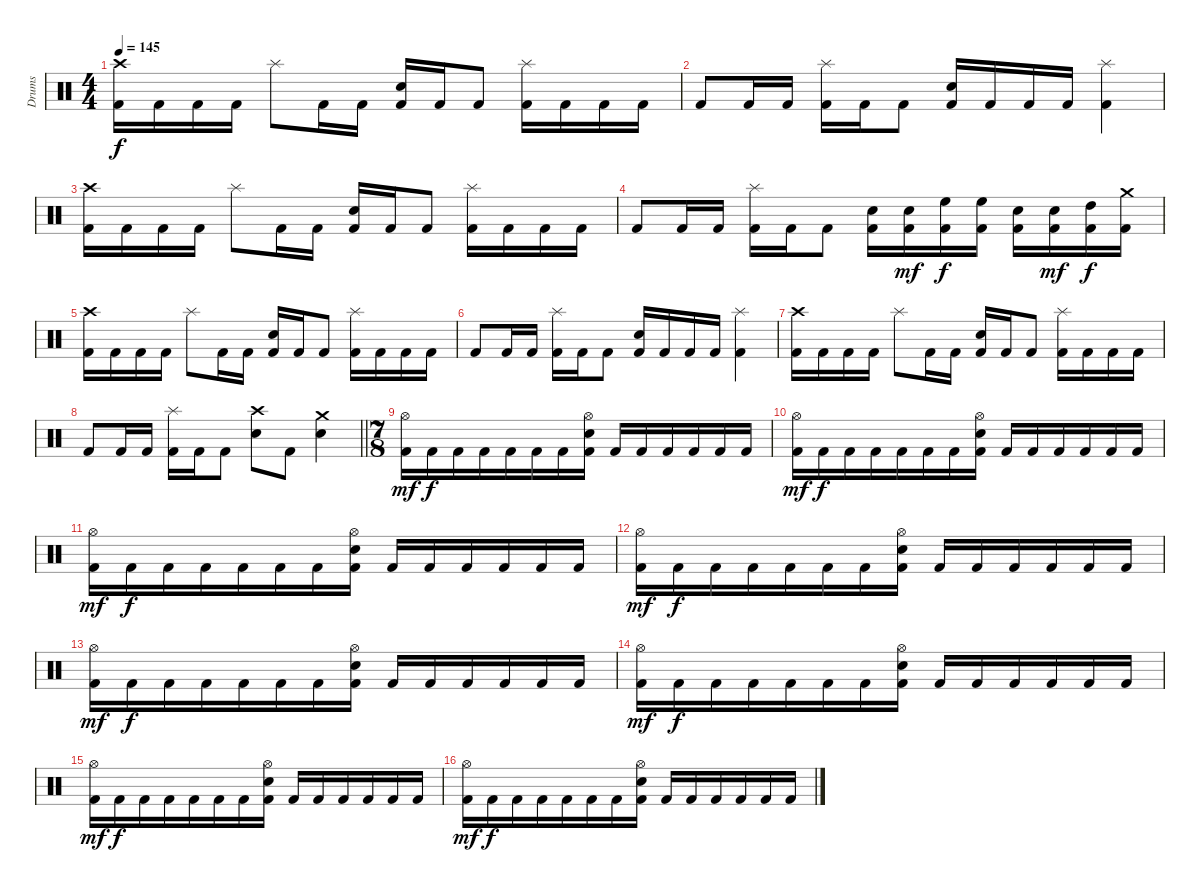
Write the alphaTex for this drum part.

\track ("Drums" "Drums") {instrument percussion}
\staff {score}
\articulation defaults
\ts (4 4)
\tempo 145
\clef neutral
\ks c
("Crash high (hit)" "Kick (hit) 2").16{dy f} "Kick (hit) 2".16 "Kick (hit) 2".16 "Kick (hit) 2".16 "Splash (hit)".8 "Kick (hit) 2".16 "Kick (hit) 2".16 ("Electric Snare (hit)" "Kick (hit) 2").16 "Kick (hit) 2".16 "Kick (hit) 2".8 ("Splash (hit)" "Kick (hit) 2").16 "Kick (hit) 2".16 "Kick (hit) 2".16 "Kick (hit) 2".16 |
"Kick (hit) 2".8 "Kick (hit) 2".16 "Kick (hit) 2".16 ("Splash (hit)" "Kick (hit) 2").16 "Kick (hit) 2".16 "Kick (hit) 2".8 ("Electric Snare (hit)" "Kick (hit) 2").16 "Kick (hit) 2".16 "Kick (hit) 2".16 "Kick (hit) 2".16 ("Splash (hit)" "Kick (hit) 2").4 |
("Crash high (hit)" "Kick (hit) 2").16 "Kick (hit) 2".16 "Kick (hit) 2".16 "Kick (hit) 2".16 "Splash (hit)".8 "Kick (hit) 2".16 "Kick (hit) 2".16 ("Electric Snare (hit)" "Kick (hit) 2").16 "Kick (hit) 2".16 "Kick (hit) 2".8 ("Splash (hit)" "Kick (hit) 2").16 "Kick (hit) 2".16 "Kick (hit) 2".16 "Kick (hit) 2".16 |
"Kick (hit) 2".8 "Kick (hit) 2".16 "Kick (hit) 2".16 ("Splash (hit)" "Kick (hit) 2").16 "Kick (hit) 2".16 "Kick (hit) 2".8 ("Electric Snare (hit)" "Kick (hit) 2").16 ("Electric Snare (hit)" "Kick (hit) 2").16{dy mf} ("High Floor Tom (hit)" "Kick (hit) 2").16{dy f} ("High Floor Tom (hit)" "Kick (hit) 2").16 ("Electric Snare (hit)" "Kick (hit) 2").16 ("Electric Snare (hit)" "Kick (hit) 2").16{dy mf} ("High Tom (hit)" "Kick (hit) 2").16{dy f} ("Crash medium (hit)" "Kick (hit) 2").16 |
("Crash high (hit)" "Kick (hit) 2").16 "Kick (hit) 2".16 "Kick (hit) 2".16 "Kick (hit) 2".16 "Splash (hit)".8 "Kick (hit) 2".16 "Kick (hit) 2".16 ("Electric Snare (hit)" "Kick (hit) 2").16 "Kick (hit) 2".16 "Kick (hit) 2".8 ("Splash (hit)" "Kick (hit) 2").16 "Kick (hit) 2".16 "Kick (hit) 2".16 "Kick (hit) 2".16 |
"Kick (hit) 2".8 "Kick (hit) 2".16 "Kick (hit) 2".16 ("Splash (hit)" "Kick (hit) 2").16 "Kick (hit) 2".16 "Kick (hit) 2".8 ("Electric Snare (hit)" "Kick (hit) 2").16 "Kick (hit) 2".16 "Kick (hit) 2".16 "Kick (hit) 2".16 ("Splash (hit)" "Kick (hit) 2").4 |
("Crash high (hit)" "Kick (hit) 2").16 "Kick (hit) 2".16 "Kick (hit) 2".16 "Kick (hit) 2".16 "Splash (hit)".8 "Kick (hit) 2".16 "Kick (hit) 2".16 ("Electric Snare (hit)" "Kick (hit) 2").16 "Kick (hit) 2".16 "Kick (hit) 2".8 ("Splash (hit)" "Kick (hit) 2").16 "Kick (hit) 2".16 "Kick (hit) 2".16 "Kick (hit) 2".16 |
\barLineRight lightlight "Kick (hit) 2".8 "Kick (hit) 2".16 "Kick (hit) 2".16
("Splash (hit)" "Kick (hit) 2").16 "Kick (hit) 2".16 "Kick (hit) 2".8 ("Crash high (hit)" "Electric Snare (hit)").8 "Kick (hit) 2".8 ("Crash medium (hit)" "Electric Snare (hit)").4 |
\ts (7 8)
("Hi-Hat (open)" "Kick (hit) 2").16{dy mf} "Kick (hit) 2".16{dy f} "Kick (hit) 2".16 "Kick (hit) 2".16 "Kick (hit) 2".16 "Kick (hit) 2".16 "Kick (hit) 2".16 ("Hi-Hat (open)" "Electric Snare (hit)" "Kick (hit) 2").16 "Kick (hit) 2".16 "Kick (hit) 2".16 "Kick (hit) 2".16 "Kick (hit) 2".16 "Kick (hit) 2".16 "Kick (hit) 2".16 |
("Hi-Hat (open)" "Kick (hit) 2").16{dy mf} "Kick (hit) 2".16{dy f} "Kick (hit) 2".16 "Kick (hit) 2".16 "Kick (hit) 2".16 "Kick (hit) 2".16 "Kick (hit) 2".16 ("Hi-Hat (open)" "Electric Snare (hit)" "Kick (hit) 2").16 "Kick (hit) 2".16 "Kick (hit) 2".16 "Kick (hit) 2".16 "Kick (hit) 2".16 "Kick (hit) 2".16 "Kick (hit) 2".16 |
("Hi-Hat (open)" "Kick (hit) 2").16{dy mf} "Kick (hit) 2".16{dy f} "Kick (hit) 2".16 "Kick (hit) 2".16 "Kick (hit) 2".16 "Kick (hit) 2".16 "Kick (hit) 2".16 ("Hi-Hat (open)" "Electric Snare (hit)" "Kick (hit) 2").16 "Kick (hit) 2".16 "Kick (hit) 2".16 "Kick (hit) 2".16 "Kick (hit) 2".16 "Kick (hit) 2".16 "Kick (hit) 2".16 |
("Hi-Hat (open)" "Kick (hit) 2").16{dy mf} "Kick (hit) 2".16{dy f} "Kick (hit) 2".16 "Kick (hit) 2".16 "Kick (hit) 2".16 "Kick (hit) 2".16 "Kick (hit) 2".16 ("Hi-Hat (open)" "Electric Snare (hit)" "Kick (hit) 2").16 "Kick (hit) 2".16 "Kick (hit) 2".16 "Kick (hit) 2".16 "Kick (hit) 2".16 "Kick (hit) 2".16 "Kick (hit) 2".16 |
("Hi-Hat (open)" "Kick (hit) 2").16{dy mf} "Kick (hit) 2".16{dy f} "Kick (hit) 2".16 "Kick (hit) 2".16 "Kick (hit) 2".16 "Kick (hit) 2".16 "Kick (hit) 2".16 ("Hi-Hat (open)" "Electric Snare (hit)" "Kick (hit) 2").16 "Kick (hit) 2".16 "Kick (hit) 2".16 "Kick (hit) 2".16 "Kick (hit) 2".16 "Kick (hit) 2".16 "Kick (hit) 2".16 |
("Hi-Hat (open)" "Kick (hit) 2").16{dy mf} "Kick (hit) 2".16{dy f} "Kick (hit) 2".16 "Kick (hit) 2".16 "Kick (hit) 2".16 "Kick (hit) 2".16 "Kick (hit) 2".16 ("Hi-Hat (open)" "Electric Snare (hit)" "Kick (hit) 2").16 "Kick (hit) 2".16 "Kick (hit) 2".16 "Kick (hit) 2".16 "Kick (hit) 2".16 "Kick (hit) 2".16 "Kick (hit) 2".16 |
("Hi-Hat (open)" "Kick (hit) 2").16{dy mf} "Kick (hit) 2".16{dy f} "Kick (hit) 2".16 "Kick (hit) 2".16 "Kick (hit) 2".16 "Kick (hit) 2".16 "Kick (hit) 2".16 ("Hi-Hat (open)" "Electric Snare (hit)" "Kick (hit) 2").16 "Kick (hit) 2".16 "Kick (hit) 2".16 "Kick (hit) 2".16 "Kick (hit) 2".16 "Kick (hit) 2".16 "Kick (hit) 2".16 |
("Hi-Hat (open)" "Kick (hit) 2").16{dy mf} "Kick (hit) 2".16{dy f} "Kick (hit) 2".16 "Kick (hit) 2".16 "Kick (hit) 2".16 "Kick (hit) 2".16 "Kick (hit) 2".16 ("Hi-Hat (open)" "Electric Snare (hit)" "Kick (hit) 2").16 "Kick (hit) 2".16 "Kick (hit) 2".16 "Kick (hit) 2".16 "Kick (hit) 2".16 "Kick (hit) 2".16 "Kick (hit) 2".16
